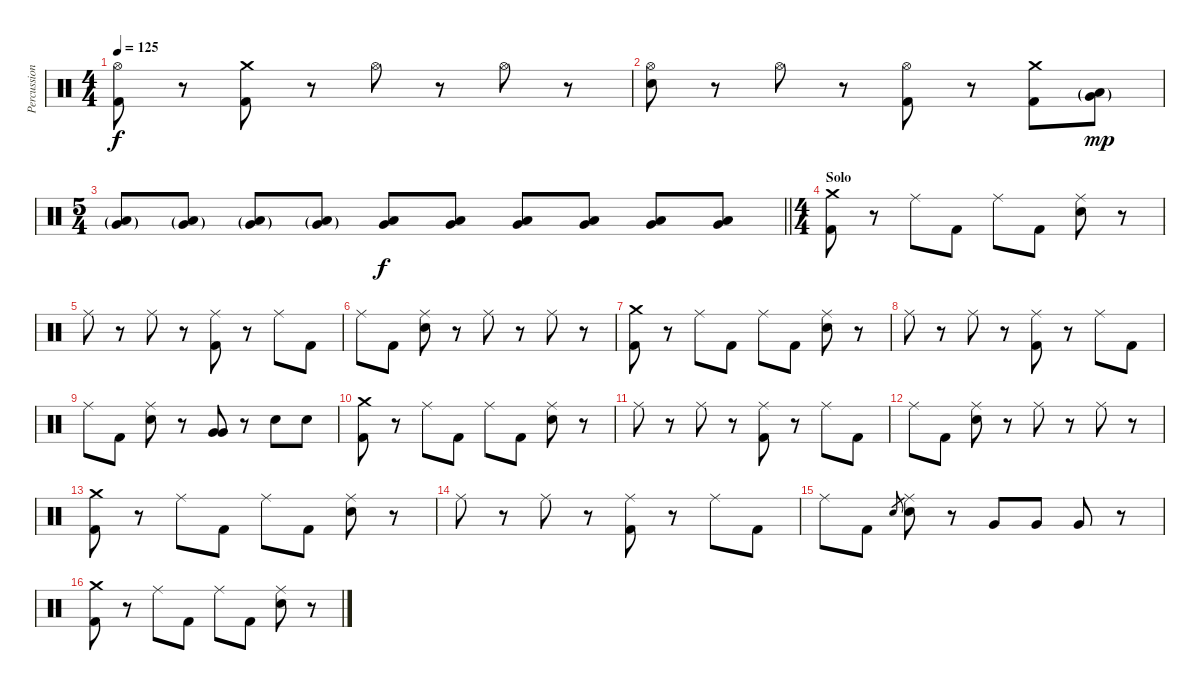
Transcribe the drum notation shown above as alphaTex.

\track ("Percussion" "Percussion") {instrument percussion}
\staff {score}
\articulation defaults
\ts (4 4)
\tempo 125
\clef neutral
\ks c
("Hi-Hat (open)" "Kick (hit) 2").8{dy f} r.8 ("Crash medium (hit)" "Kick (hit) 2").8 r.8 "Hi-Hat (open)".8 r.8 "Hi-Hat (open)".8 r.8 |
("Hi-Hat (open)" "Electric Snare (hit)").8 r.8 "Hi-Hat (open)".8 r.8 ("Hi-Hat (open)" "Kick (hit) 2").8 r.8 ("Crash medium (hit)" "Kick (hit) 2").8 ("Low Tom (hit)"{g} "Very Low Tom (hit)"{g}).8{dy mp} |
\ts (5 4)
\barLineRight lightlight
("Low Tom (hit)"{g} "Very Low Tom (hit)"{g}).8 ("Low Tom (hit)"{g} "Very Low Tom (hit)"{g}).8 ("Low Tom (hit)"{g} "Very Low Tom (hit)"{g}).8 ("Low Tom (hit)"{g} "Very Low Tom (hit)"{g}).8 ("Low Tom (hit)" "Very Low Tom (hit)").8{dy f} ("Low Tom (hit)" "Very Low Tom (hit)").8 ("Low Tom (hit)" "Very Low Tom (hit)").8 ("Low Tom (hit)" "Very Low Tom (hit)").8 ("Low Tom (hit)" "Very Low Tom (hit)").8 ("Low Tom (hit)" "Very Low Tom (hit)").8 |
\ts (4 4)
\section ("" "Solo")
("Crash medium (hit)" "Kick (hit) 2").8 r.8 "Ride (middle)".8 "Kick (hit) 2".8 "Ride (middle)".8 "Kick (hit) 2".8 ("Ride (middle)" "Electric Snare (hit)").8 r.8 |
"Ride (middle)".8 r.8 "Ride (middle)".8 r.8 ("Ride (middle)" "Kick (hit) 2").8 r.8 "Ride (middle)".8 "Kick (hit) 2".8 |
"Ride (middle)".8 "Kick (hit) 2".8 ("Ride (middle)" "Electric Snare (hit)").8 r.8 "Ride (middle)".8 r.8 "Ride (middle)".8 r.8 |
("Crash medium (hit)" "Kick (hit) 2").8 r.8 "Ride (middle)".8 "Kick (hit) 2".8 "Ride (middle)".8 "Kick (hit) 2".8 ("Ride (middle)" "Electric Snare (hit)").8 r.8 |
"Ride (middle)".8 r.8 "Ride (middle)".8 r.8 ("Ride (middle)" "Kick (hit) 2").8 r.8 "Ride (middle)".8 "Kick (hit) 2".8 |
"Ride (middle)".8 "Kick (hit) 2".8 ("Ride (middle)" "Electric Snare (hit)").8 r.8 ("Very Low Tom (hit)" "Very Low Tom (hit)").8 r.8 "Electric Snare (hit)".8 "Electric Snare (hit)".8 |
("Crash medium (hit)" "Kick (hit) 2").8 r.8 "Ride (middle)".8 "Kick (hit) 2".8 "Ride (middle)".8 "Kick (hit) 2".8 ("Ride (middle)" "Electric Snare (hit)").8 r.8 |
"Ride (middle)".8 r.8 "Ride (middle)".8 r.8 ("Ride (middle)" "Kick (hit) 2").8 r.8 "Ride (middle)".8 "Kick (hit) 2".8 |
"Ride (middle)".8 "Kick (hit) 2".8 ("Ride (middle)" "Electric Snare (hit)").8 r.8 "Ride (middle)".8 r.8 "Ride (middle)".8 r.8 |
("Crash medium (hit)" "Kick (hit) 2").8 r.8 "Ride (middle)".8 "Kick (hit) 2".8 "Ride (middle)".8 "Kick (hit) 2".8 ("Ride (middle)" "Electric Snare (hit)").8 r.8 |
"Ride (middle)".8 r.8 "Ride (middle)".8 r.8 ("Ride (middle)" "Kick (hit) 2").8 r.8 "Ride (middle)".8 "Kick (hit) 2".8 |
"Ride (middle)".8 "Kick (hit) 2".8 "Electric Snare (hit)".8{gr} ("Ride (middle)" "Electric Snare (hit)").8 r.8 "Very Low Tom (hit)".8 "Very Low Tom (hit)".8 "Very Low Tom (hit)".8 r.8 |
("Crash medium (hit)" "Kick (hit) 2").8 r.8 "Ride (middle)".8 "Kick (hit) 2".8 "Ride (middle)".8 "Kick (hit) 2".8 ("Ride (middle)" "Electric Snare (hit)").8 r.8
